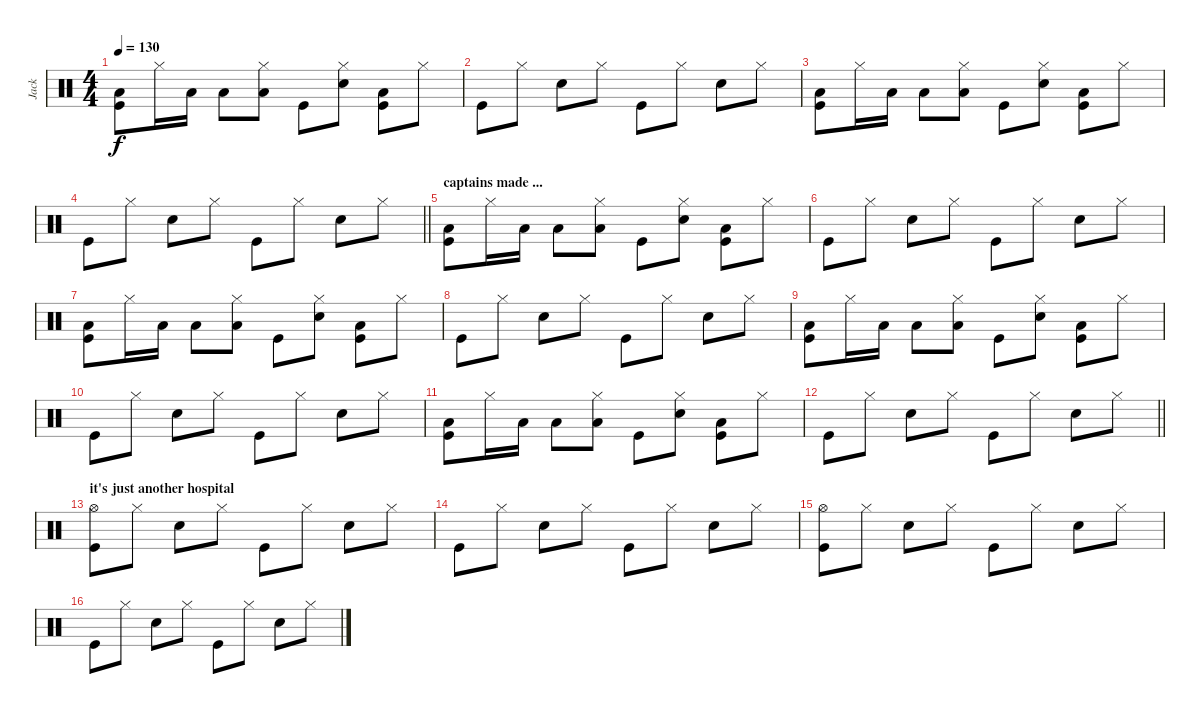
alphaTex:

\track ("Jack" "Jack") {instrument percussion}
\staff {score}
\articulation defaults
\ts (4 4)
\tempo 130
\clef neutral
\ks c
("Low Floor Tom (hit)" "Kick (hit)").8{dy f} "Hi-Hat (closed)".16 "Low Floor Tom (hit)".16 "Low Floor Tom (hit)".8 ("Hi-Hat (closed)" "Low Floor Tom (hit)").8 "Kick (hit)".8 ("Hi-Hat (closed)" "Electric Snare (hit)").8 ("Low Floor Tom (hit)" "Kick (hit)").8 "Hi-Hat (closed)".8 |
"Kick (hit)".8 "Hi-Hat (closed)".8 "Electric Snare (hit)".8 "Hi-Hat (closed)".8 "Kick (hit)".8 "Hi-Hat (closed)".8 "Electric Snare (hit)".8 "Hi-Hat (closed)".8 |
("Low Floor Tom (hit)" "Kick (hit)").8 "Hi-Hat (closed)".16 "Low Floor Tom (hit)".16 "Low Floor Tom (hit)".8 ("Hi-Hat (closed)" "Low Floor Tom (hit)").8 "Kick (hit)".8 ("Hi-Hat (closed)" "Electric Snare (hit)").8 ("Low Floor Tom (hit)" "Kick (hit)").8 "Hi-Hat (closed)".8 |
\barLineRight lightlight "Kick (hit)".8 "Hi-Hat (closed)".8 "Electric Snare (hit)".8 "Hi-Hat (closed)".8 "Kick (hit)".8 "Hi-Hat (closed)".8 "Electric Snare (hit)".8 "Hi-Hat (closed)".8
|
\section ("" "captains made ...")
("Low Floor Tom (hit)" "Kick (hit)").8 "Hi-Hat (closed)".16 "Low Floor Tom (hit)".16 "Low Floor Tom (hit)".8 ("Hi-Hat (closed)" "Low Floor Tom (hit)").8 "Kick (hit)".8 ("Hi-Hat (closed)" "Electric Snare (hit)").8 ("Low Floor Tom (hit)" "Kick (hit)").8 "Hi-Hat (closed)".8 |
"Kick (hit)".8 "Hi-Hat (closed)".8 "Electric Snare (hit)".8 "Hi-Hat (closed)".8 "Kick (hit)".8 "Hi-Hat (closed)".8 "Electric Snare (hit)".8 "Hi-Hat (closed)".8 |
("Low Floor Tom (hit)" "Kick (hit)").8 "Hi-Hat (closed)".16 "Low Floor Tom (hit)".16 "Low Floor Tom (hit)".8 ("Hi-Hat (closed)" "Low Floor Tom (hit)").8 "Kick (hit)".8 ("Hi-Hat (closed)" "Electric Snare (hit)").8 ("Low Floor Tom (hit)" "Kick (hit)").8 "Hi-Hat (closed)".8 |
"Kick (hit)".8 "Hi-Hat (closed)".8 "Electric Snare (hit)".8 "Hi-Hat (closed)".8 "Kick (hit)".8 "Hi-Hat (closed)".8 "Electric Snare (hit)".8 "Hi-Hat (closed)".8 |
("Low Floor Tom (hit)" "Kick (hit)").8 "Hi-Hat (closed)".16 "Low Floor Tom (hit)".16 "Low Floor Tom (hit)".8 ("Hi-Hat (closed)" "Low Floor Tom (hit)").8 "Kick (hit)".8 ("Hi-Hat (closed)" "Electric Snare (hit)").8 ("Low Floor Tom (hit)" "Kick (hit)").8 "Hi-Hat (closed)".8 |
"Kick (hit)".8 "Hi-Hat (closed)".8 "Electric Snare (hit)".8 "Hi-Hat (closed)".8 "Kick (hit)".8 "Hi-Hat (closed)".8 "Electric Snare (hit)".8 "Hi-Hat (closed)".8 |
("Low Floor Tom (hit)" "Kick (hit)").8 "Hi-Hat (closed)".16 "Low Floor Tom (hit)".16 "Low Floor Tom (hit)".8 ("Hi-Hat (closed)" "Low Floor Tom (hit)").8 "Kick (hit)".8 ("Hi-Hat (closed)" "Electric Snare (hit)").8 ("Low Floor Tom (hit)" "Kick (hit)").8 "Hi-Hat (closed)".8 |
\barLineRight lightlight "Kick (hit)".8 "Hi-Hat (closed)".8 "Electric Snare (hit)".8 "Hi-Hat (closed)".8 "Kick (hit)".8 "Hi-Hat (closed)".8 "Electric Snare (hit)".8 "Hi-Hat (closed)".8
|
\section ("" "it's just another hospital")
("Hi-Hat (open)" "Kick (hit)").8 "Hi-Hat (closed)".8 "Electric Snare (hit)".8 "Hi-Hat (closed)".8 "Kick (hit)".8 "Hi-Hat (closed)".8 "Electric Snare (hit)".8 "Hi-Hat (closed)".8 |
"Kick (hit)".8 "Hi-Hat (closed)".8 "Electric Snare (hit)".8 "Hi-Hat (closed)".8 "Kick (hit)".8 "Hi-Hat (closed)".8 "Electric Snare (hit)".8 "Hi-Hat (closed)".8 |
("Hi-Hat (open)" "Kick (hit)").8 "Hi-Hat (closed)".8 "Electric Snare (hit)".8 "Hi-Hat (closed)".8 "Kick (hit)".8 "Hi-Hat (closed)".8 "Electric Snare (hit)".8 "Hi-Hat (closed)".8 |
"Kick (hit)".8 "Hi-Hat (closed)".8 "Electric Snare (hit)".8 "Hi-Hat (closed)".8 "Kick (hit)".8 "Hi-Hat (closed)".8 "Electric Snare (hit)".8 "Hi-Hat (closed)".8
